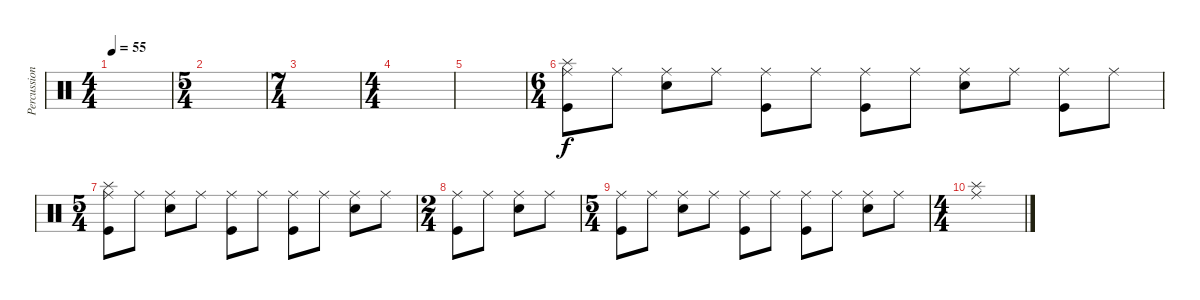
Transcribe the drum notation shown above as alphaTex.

\track ("Percussion" "Percussion") {instrument percussion}
\staff {score}
\articulation defaults
\ts (4 4)
\tempo 55
\clef neutral
\ks c
|
\ts (5 4)
|
\ts (7 4)
|
\ts (4 4)
|
|
\ts (6 4)
("Splash (hit)" "Ride (middle)" "Kick (hit)").8 "Ride (middle)".8 ("Ride (middle)" "Electric Snare (hit)").8 "Ride (middle)".8 ("Ride (middle)" "Kick (hit)").8 "Ride (middle)".8 ("Ride (middle)" "Kick (hit)").8 "Ride (middle)".8 ("Ride (middle)" "Electric Snare (hit)").8 "Ride (middle)".8 ("Ride (middle)" "Kick (hit)").8 "Ride (middle)".8 |
\ts (5 4)
("Splash (hit)" "Ride (middle)" "Kick (hit)").8 "Ride (middle)".8 ("Ride (middle)" "Electric Snare (hit)").8 "Ride (middle)".8 ("Ride (middle)" "Kick (hit)").8 "Ride (middle)".8 ("Ride (middle)" "Kick (hit)").8 "Ride (middle)".8 ("Ride (middle)" "Electric Snare (hit)").8 "Ride (middle)".8 |
\ts (2 4)
("Ride (middle)" "Kick (hit)").8 "Ride (middle)".8 ("Ride (middle)" "Electric Snare (hit)").8 "Ride (middle)".8 |
\ts (5 4)
("Ride (middle)" "Kick (hit)").8 "Ride (middle)".8 ("Ride (middle)" "Electric Snare (hit)").8 "Ride (middle)".8 ("Ride (middle)" "Kick (hit)").8 "Ride (middle)".8 ("Ride (middle)" "Kick (hit)").8 "Ride (middle)".8 ("Ride (middle)" "Electric Snare (hit)").8 "Ride (middle)".8 |
\ts (4 4)
("Splash (hit)" "Ride (middle)").1
